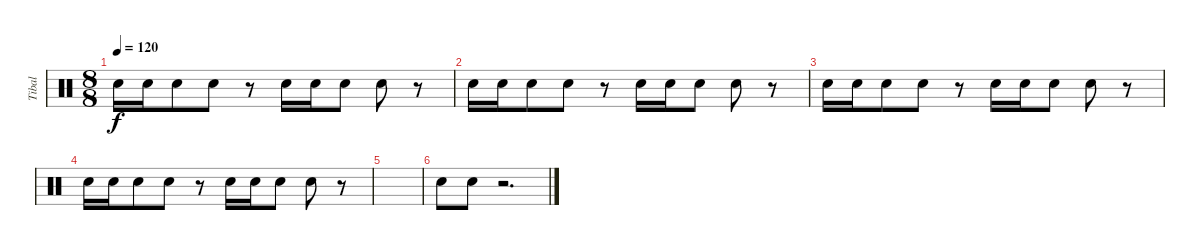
\track ("Tibal" "Tibal") {instrument percussion}
\staff {score}
\articulation defaults
\ts (8 8)
\tempo 120
\clef neutral
\ks c "Snare (hit) 2".16{dy f} "Snare (hit) 2".16 "Snare (hit) 2".8 "Snare (hit) 2".8
r.8 "Snare (hit) 2".16 "Snare (hit) 2".16 "Snare (hit) 2".8 "Snare (hit) 2".8 r.8 |
"Snare (hit) 2".16 "Snare (hit) 2".16 "Snare (hit) 2".8 "Snare (hit) 2".8 r.8 "Snare (hit) 2".16 "Snare (hit) 2".16 "Snare (hit) 2".8 "Snare (hit) 2".8 r.8 |
"Snare (hit) 2".16 "Snare (hit) 2".16 "Snare (hit) 2".8 "Snare (hit) 2".8 r.8 "Snare (hit) 2".16 "Snare (hit) 2".16 "Snare (hit) 2".8 "Snare (hit) 2".8 r.8 |
"Snare (hit) 2".16 "Snare (hit) 2".16 "Snare (hit) 2".8 "Snare (hit) 2".8 r.8 "Snare (hit) 2".16 "Snare (hit) 2".16 "Snare (hit) 2".8 "Snare (hit) 2".8 r.8 |
|
"Snare (hit) 2".8 "Snare (hit) 2".8 r.2{d}
